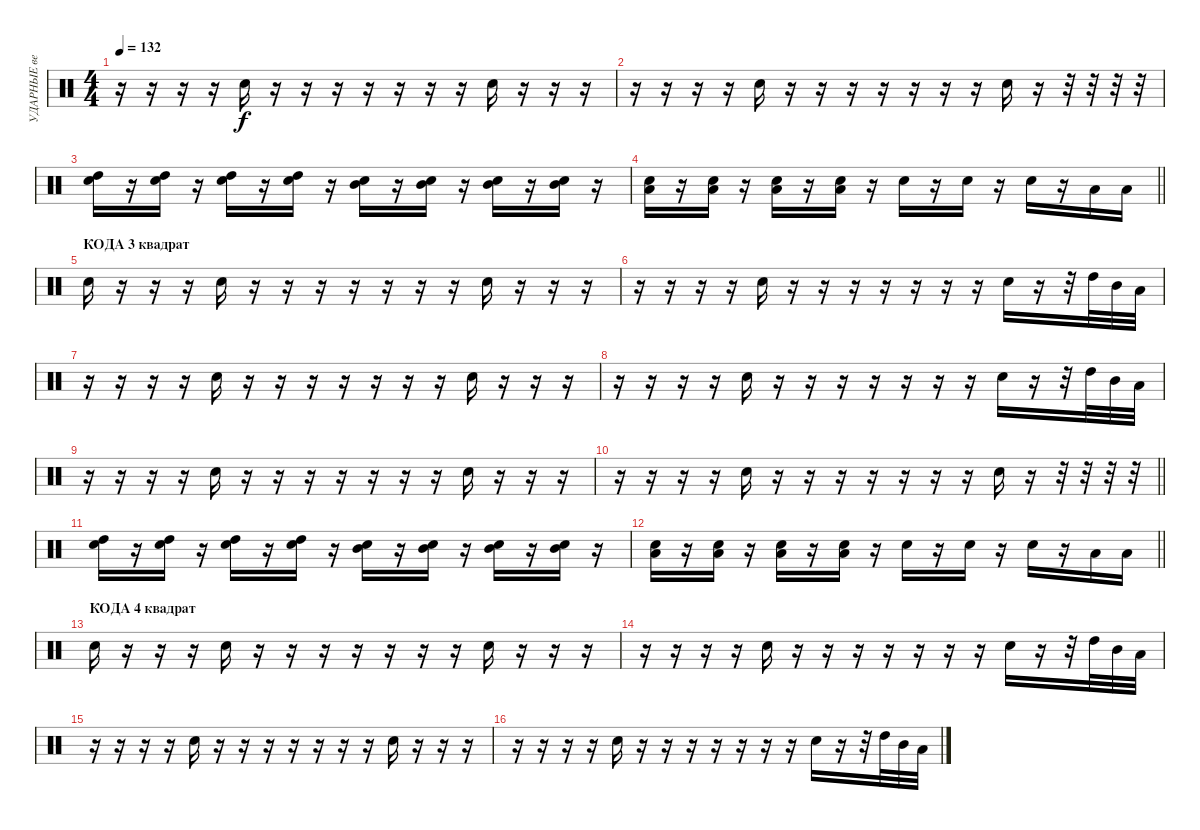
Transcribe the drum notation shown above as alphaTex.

\track ("УДАРНЫЕ ведущий" "УДАРНЫЕ ве") {instrument percussion}
\staff {score}
\articulation defaults
\ts (4 4)
\tempo 132
\clef neutral
\ks c
r.16{dy f} r.16 r.16 r.16 "Snare (hit) 2".16 r.16 r.16 r.16 r.16 r.16 r.16 r.16 "Snare (hit) 2".16 r.16 r.16 r.16 |
r.16 r.16 r.16 r.16 "Snare (hit) 2".16 r.16 r.16 r.16 r.16 r.16 r.16 r.16 "Snare (hit) 2".16 r.16 r.32 r.32 r.32 r.32 |
("High Tom (hit)" "Snare (hit) 2").16 r.16 ("High Tom (hit)" "Snare (hit) 2").16 r.16 ("High Tom (hit)" "Snare (hit) 2").16 r.16 ("High Tom (hit)" "Snare (hit) 2").16 r.16 ("Mid Tom (hit)" "Snare (hit) 2").16 r.16 ("Mid Tom (hit)" "Snare (hit) 2").16 r.16 ("Mid Tom (hit)" "Snare (hit) 2").16 r.16 ("Mid Tom (hit)" "Snare (hit) 2").16 r.16 |
\barLineRight lightlight
("Low Tom (hit)" "Snare (hit) 2").16 r.16 ("Low Tom (hit)" "Snare (hit) 2").16 r.16 ("Low Tom (hit)" "Snare (hit) 2").16 r.16 ("Low Tom (hit)" "Snare (hit) 2").16 r.16 "Snare (hit) 2".16 r.16 "Snare (hit) 2".16 r.16 "Snare (hit) 2".16 r.16 "Low Tom (hit)".16 "Low Tom (hit)".16 |
\section ("" "КОДА 3 квадрат")
"Snare (hit) 2".16 r.16 r.16 r.16 "Snare (hit) 2".16 r.16 r.16 r.16 r.16 r.16 r.16 r.16 "Snare (hit) 2".16 r.16 r.16 r.16 |
r.16 r.16 r.16 r.16 "Snare (hit) 2".16 r.16 r.16 r.16 r.16 r.16 r.16 r.16 "Snare (hit) 2".16 r.16 r.32 "High Tom (hit)".32 "Mid Tom (hit)".32 "Low Tom (hit)".32 |
r.16 r.16 r.16 r.16 "Snare (hit) 2".16 r.16 r.16 r.16 r.16 r.16 r.16 r.16 "Snare (hit) 2".16 r.16 r.16 r.16 |
r.16 r.16 r.16 r.16 "Snare (hit) 2".16 r.16 r.16 r.16 r.16 r.16 r.16 r.16 "Snare (hit) 2".16 r.16 r.32 "High Tom (hit)".32 "Mid Tom (hit)".32 "Low Tom (hit)".32 |
r.16 r.16 r.16 r.16 "Snare (hit) 2".16 r.16 r.16 r.16 r.16 r.16 r.16 r.16 "Snare (hit) 2".16 r.16 r.16 r.16 |
\barLineRight lightlight
r.16 r.16 r.16 r.16 "Snare (hit) 2".16 r.16 r.16 r.16 r.16 r.16 r.16 r.16 "Snare (hit) 2".16 r.16 r.32 r.32 r.32 r.32 |
("High Tom (hit)" "Snare (hit) 2").16 r.16 ("High Tom (hit)" "Snare (hit) 2").16 r.16 ("High Tom (hit)" "Snare (hit) 2").16 r.16 ("High Tom (hit)" "Snare (hit) 2").16 r.16 ("Mid Tom (hit)" "Snare (hit) 2").16 r.16 ("Mid Tom (hit)" "Snare (hit) 2").16 r.16 ("Mid Tom (hit)" "Snare (hit) 2").16 r.16 ("Mid Tom (hit)" "Snare (hit) 2").16 r.16 |
\barLineRight lightlight
("Low Tom (hit)" "Snare (hit) 2").16 r.16 ("Low Tom (hit)" "Snare (hit) 2").16 r.16 ("Low Tom (hit)" "Snare (hit) 2").16 r.16 ("Low Tom (hit)" "Snare (hit) 2").16 r.16 "Snare (hit) 2".16 r.16 "Snare (hit) 2".16 r.16 "Snare (hit) 2".16 r.16 "Low Tom (hit)".16 "Low Tom (hit)".16 |
\section ("" "КОДА 4 квадрат")
"Snare (hit) 2".16 r.16 r.16 r.16 "Snare (hit) 2".16 r.16 r.16 r.16 r.16 r.16 r.16 r.16 "Snare (hit) 2".16 r.16 r.16 r.16 |
r.16 r.16 r.16 r.16 "Snare (hit) 2".16 r.16 r.16 r.16 r.16 r.16 r.16 r.16 "Snare (hit) 2".16 r.16 r.32 "High Tom (hit)".32 "Mid Tom (hit)".32 "Low Tom (hit)".32 |
r.16 r.16 r.16 r.16 "Snare (hit) 2".16 r.16 r.16 r.16 r.16 r.16 r.16 r.16 "Snare (hit) 2".16 r.16 r.16 r.16 |
r.16 r.16 r.16 r.16 "Snare (hit) 2".16 r.16 r.16 r.16 r.16 r.16 r.16 r.16 "Snare (hit) 2".16 r.16 r.32 "High Tom (hit)".32 "Mid Tom (hit)".32 "Low Tom (hit)".32
